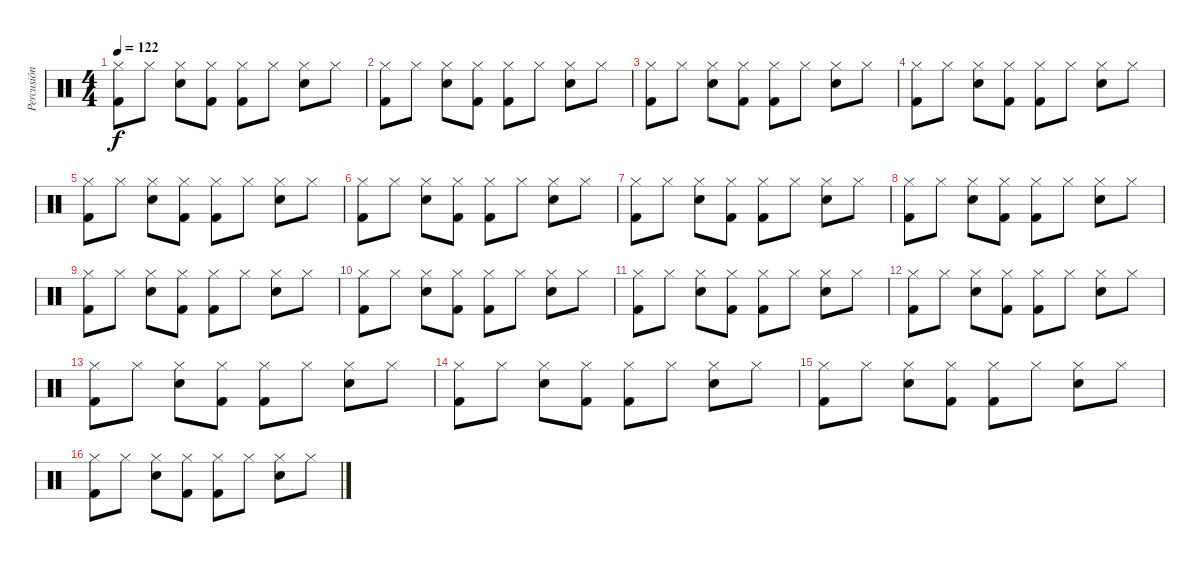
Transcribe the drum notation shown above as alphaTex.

\track ("Percusión" "Percusión") {instrument percussion}
\staff {score}
\articulation defaults
\ts (4 4)
\tempo 122
\clef neutral
\ks c
("Hi-Hat (closed)" "Kick (hit) 2").8{dy f} "Hi-Hat (closed)".8 ("Hi-Hat (closed)" "Electric Snare (hit)").8 ("Hi-Hat (closed)" "Kick (hit) 2").8 ("Hi-Hat (closed)" "Kick (hit) 2").8 "Hi-Hat (closed)".8 ("Hi-Hat (closed)" "Electric Snare (hit)").8 "Hi-Hat (closed)".8 |
("Hi-Hat (closed)" "Kick (hit) 2").8 "Hi-Hat (closed)".8 ("Hi-Hat (closed)" "Electric Snare (hit)").8 ("Hi-Hat (closed)" "Kick (hit) 2").8 ("Hi-Hat (closed)" "Kick (hit) 2").8 "Hi-Hat (closed)".8 ("Hi-Hat (closed)" "Electric Snare (hit)").8 "Hi-Hat (closed)".8 |
("Hi-Hat (closed)" "Kick (hit) 2").8 "Hi-Hat (closed)".8 ("Hi-Hat (closed)" "Electric Snare (hit)").8 ("Hi-Hat (closed)" "Kick (hit) 2").8 ("Hi-Hat (closed)" "Kick (hit) 2").8 "Hi-Hat (closed)".8 ("Hi-Hat (closed)" "Electric Snare (hit)").8 "Hi-Hat (closed)".8 |
("Hi-Hat (closed)" "Kick (hit) 2").8 "Hi-Hat (closed)".8 ("Hi-Hat (closed)" "Electric Snare (hit)").8 ("Hi-Hat (closed)" "Kick (hit) 2").8 ("Hi-Hat (closed)" "Kick (hit) 2").8 "Hi-Hat (closed)".8 ("Hi-Hat (closed)" "Electric Snare (hit)").8 "Hi-Hat (closed)".8 |
("Hi-Hat (closed)" "Kick (hit) 2").8 "Hi-Hat (closed)".8 ("Hi-Hat (closed)" "Electric Snare (hit)").8 ("Hi-Hat (closed)" "Kick (hit) 2").8 ("Hi-Hat (closed)" "Kick (hit) 2").8 "Hi-Hat (closed)".8 ("Hi-Hat (closed)" "Electric Snare (hit)").8 "Hi-Hat (closed)".8 |
("Hi-Hat (closed)" "Kick (hit) 2").8 "Hi-Hat (closed)".8 ("Hi-Hat (closed)" "Electric Snare (hit)").8 ("Hi-Hat (closed)" "Kick (hit) 2").8 ("Hi-Hat (closed)" "Kick (hit) 2").8 "Hi-Hat (closed)".8 ("Hi-Hat (closed)" "Electric Snare (hit)").8 "Hi-Hat (closed)".8 |
("Hi-Hat (closed)" "Kick (hit) 2").8 "Hi-Hat (closed)".8 ("Hi-Hat (closed)" "Electric Snare (hit)").8 ("Hi-Hat (closed)" "Kick (hit) 2").8 ("Hi-Hat (closed)" "Kick (hit) 2").8 "Hi-Hat (closed)".8 ("Hi-Hat (closed)" "Electric Snare (hit)").8 "Hi-Hat (closed)".8 |
("Hi-Hat (closed)" "Kick (hit) 2").8 "Hi-Hat (closed)".8 ("Hi-Hat (closed)" "Electric Snare (hit)").8 ("Hi-Hat (closed)" "Kick (hit) 2").8 ("Hi-Hat (closed)" "Kick (hit) 2").8 "Hi-Hat (closed)".8 ("Hi-Hat (closed)" "Electric Snare (hit)").8 "Hi-Hat (closed)".8 |
("Hi-Hat (closed)" "Kick (hit) 2").8 "Hi-Hat (closed)".8 ("Hi-Hat (closed)" "Electric Snare (hit)").8 ("Hi-Hat (closed)" "Kick (hit) 2").8 ("Hi-Hat (closed)" "Kick (hit) 2").8 "Hi-Hat (closed)".8 ("Hi-Hat (closed)" "Electric Snare (hit)").8 "Hi-Hat (closed)".8 |
("Hi-Hat (closed)" "Kick (hit) 2").8 "Hi-Hat (closed)".8 ("Hi-Hat (closed)" "Electric Snare (hit)").8 ("Hi-Hat (closed)" "Kick (hit) 2").8 ("Hi-Hat (closed)" "Kick (hit) 2").8 "Hi-Hat (closed)".8 ("Hi-Hat (closed)" "Electric Snare (hit)").8 "Hi-Hat (closed)".8 |
("Hi-Hat (closed)" "Kick (hit) 2").8 "Hi-Hat (closed)".8 ("Hi-Hat (closed)" "Electric Snare (hit)").8 ("Hi-Hat (closed)" "Kick (hit) 2").8 ("Hi-Hat (closed)" "Kick (hit) 2").8 "Hi-Hat (closed)".8 ("Hi-Hat (closed)" "Electric Snare (hit)").8 "Hi-Hat (closed)".8 |
("Hi-Hat (closed)" "Kick (hit) 2").8 "Hi-Hat (closed)".8 ("Hi-Hat (closed)" "Electric Snare (hit)").8 ("Hi-Hat (closed)" "Kick (hit) 2").8 ("Hi-Hat (closed)" "Kick (hit) 2").8 "Hi-Hat (closed)".8 ("Hi-Hat (closed)" "Electric Snare (hit)").8 "Hi-Hat (closed)".8 |
("Hi-Hat (closed)" "Kick (hit) 2").8 "Hi-Hat (closed)".8 ("Hi-Hat (closed)" "Electric Snare (hit)").8 ("Hi-Hat (closed)" "Kick (hit) 2").8 ("Hi-Hat (closed)" "Kick (hit) 2").8 "Hi-Hat (closed)".8 ("Hi-Hat (closed)" "Electric Snare (hit)").8 "Hi-Hat (closed)".8 |
("Hi-Hat (closed)" "Kick (hit) 2").8 "Hi-Hat (closed)".8 ("Hi-Hat (closed)" "Electric Snare (hit)").8 ("Hi-Hat (closed)" "Kick (hit) 2").8 ("Hi-Hat (closed)" "Kick (hit) 2").8 "Hi-Hat (closed)".8 ("Hi-Hat (closed)" "Electric Snare (hit)").8 "Hi-Hat (closed)".8 |
("Hi-Hat (closed)" "Kick (hit) 2").8 "Hi-Hat (closed)".8 ("Hi-Hat (closed)" "Electric Snare (hit)").8 ("Hi-Hat (closed)" "Kick (hit) 2").8 ("Hi-Hat (closed)" "Kick (hit) 2").8 "Hi-Hat (closed)".8 ("Hi-Hat (closed)" "Electric Snare (hit)").8 "Hi-Hat (closed)".8 |
("Hi-Hat (closed)" "Kick (hit) 2").8 "Hi-Hat (closed)".8 ("Hi-Hat (closed)" "Electric Snare (hit)").8 ("Hi-Hat (closed)" "Kick (hit) 2").8 ("Hi-Hat (closed)" "Kick (hit) 2").8 "Hi-Hat (closed)".8 ("Hi-Hat (closed)" "Electric Snare (hit)").8 "Hi-Hat (closed)".8
